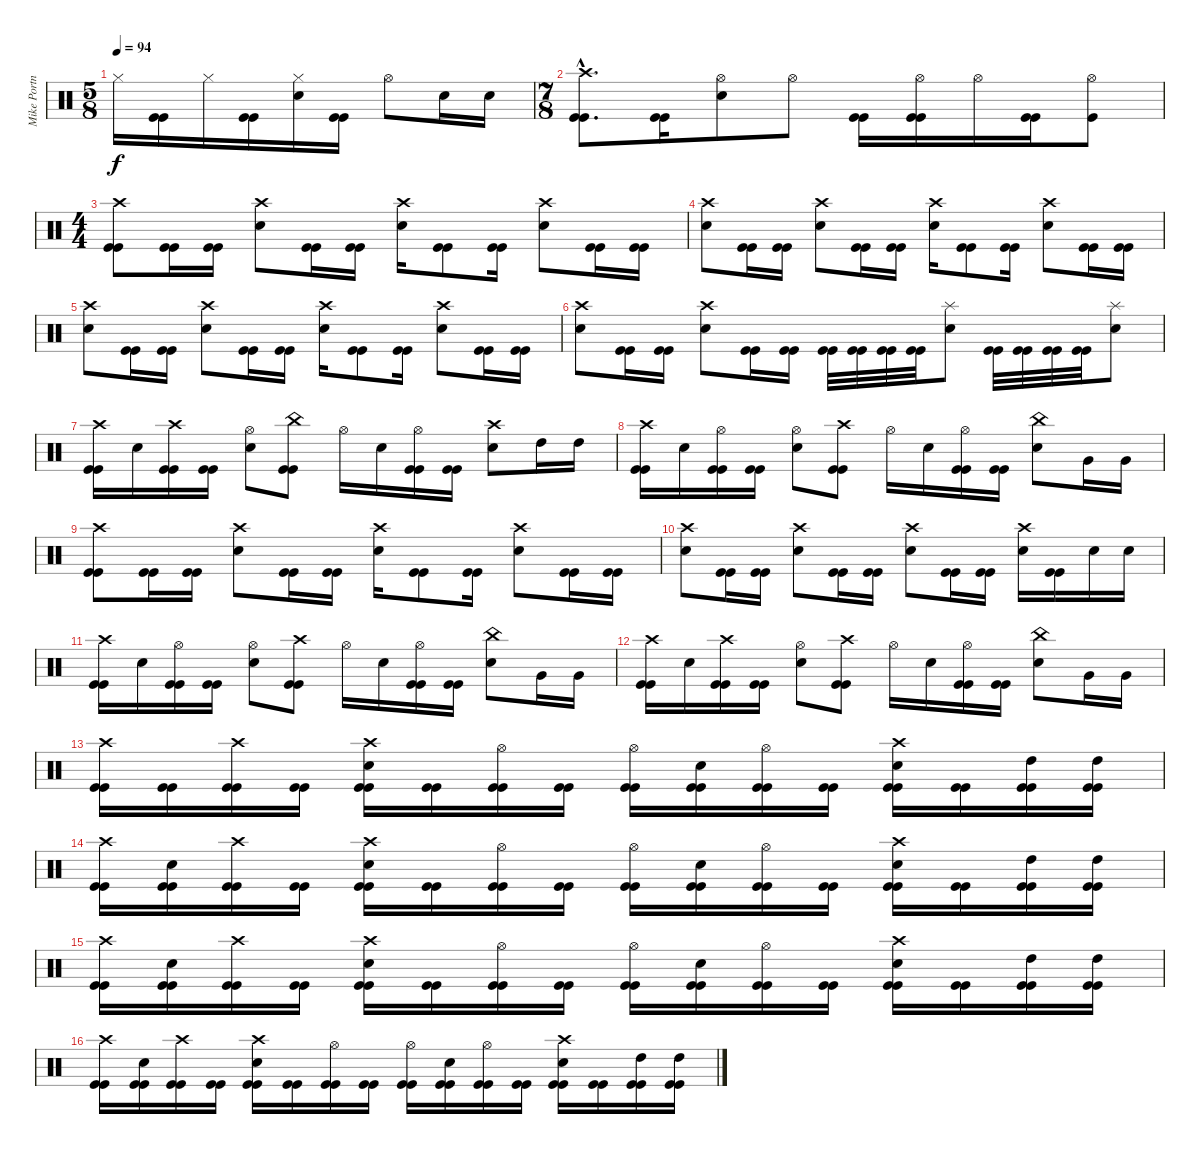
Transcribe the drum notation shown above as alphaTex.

\track ("Mike Portnoy - Drum" "Mike Portn") {instrument percussion}
\staff {score}
\articulation defaults
\ts (5 8)
\tempo 94
\clef neutral
\ks c "Hi-Hat (closed)".16{dy f}
("Kick (hit)" "Kick (hit)").16 "Hi-Hat (closed)".16 ("Kick (hit)" "Kick (hit)").16 ("Hi-Hat (closed)" "Snare (hit) 2").16 ("Kick (hit)" "Kick (hit)").16 "Hi-Hat (open)".8 "Snare (hit) 2".16 "Snare (hit) 2".16 |
\ts (7 8)
("Crash high (hit)"{hac} "Kick (hit)"{hac} "Kick (hit)"{hac}).8{d} ("Kick (hit)" "Kick (hit)").16 ("Hi-Hat (open)" "Snare (hit) 2").8 "Hi-Hat (open)".8 ("Kick (hit)" "Kick (hit)").16 ("Hi-Hat (open)" "Kick (hit)" "Kick (hit)").16 "Hi-Hat (open)".16 ("Kick (hit)" "Kick (hit)").16 ("Hi-Hat (open)" "Kick (hit)").8 |
\ts (4 4)
("Crash high (hit)" "Kick (hit)" "Kick (hit)").8 ("Kick (hit)" "Kick (hit)").16 ("Kick (hit)" "Kick (hit)").16 ("Crash high (hit)" "Snare (hit) 2").8 ("Kick (hit)" "Kick (hit)").16 ("Kick (hit)" "Kick (hit)").16 ("Crash high (hit)" "Snare (hit) 2").16 ("Kick (hit)" "Kick (hit)").8 ("Kick (hit)" "Kick (hit)").16 ("Crash high (hit)" "Snare (hit) 2").8 ("Kick (hit)" "Kick (hit)").16 ("Kick (hit)" "Kick (hit)").16 |
("Crash high (hit)" "Snare (hit) 2").8 ("Kick (hit)" "Kick (hit)").16 ("Kick (hit)" "Kick (hit)").16 ("Crash high (hit)" "Snare (hit) 2").8 ("Kick (hit)" "Kick (hit)").16 ("Kick (hit)" "Kick (hit)").16 ("Crash high (hit)" "Snare (hit) 2").16 ("Kick (hit)" "Kick (hit)").8 ("Kick (hit)" "Kick (hit)").16 ("Crash high (hit)" "Snare (hit) 2").8 ("Kick (hit)" "Kick (hit)").16 ("Kick (hit)" "Kick (hit)").16 |
("Crash high (hit)" "Snare (hit) 2").8 ("Kick (hit)" "Kick (hit)").16 ("Kick (hit)" "Kick (hit)").16 ("Crash high (hit)" "Snare (hit) 2").8 ("Kick (hit)" "Kick (hit)").16 ("Kick (hit)" "Kick (hit)").16 ("Crash high (hit)" "Snare (hit) 2").16 ("Kick (hit)" "Kick (hit)").8 ("Kick (hit)" "Kick (hit)").16 ("Crash high (hit)" "Snare (hit) 2").8 ("Kick (hit)" "Kick (hit)").16 ("Kick (hit)" "Kick (hit)").16 |
("Crash high (hit)" "Snare (hit) 2").8 ("Kick (hit)" "Kick (hit)").16 ("Kick (hit)" "Kick (hit)").16 ("Crash high (hit)" "Snare (hit) 2").8 ("Kick (hit)" "Kick (hit)").16 ("Kick (hit)" "Kick (hit)").16 ("Kick (hit)" "Kick (hit)").32 ("Kick (hit)" "Kick (hit)").32 ("Kick (hit)" "Kick (hit)").32 ("Kick (hit)" "Kick (hit)").32 ("Splash (hit)" "Snare (hit) 2").8 ("Kick (hit)" "Kick (hit)").32 ("Kick (hit)" "Kick (hit)").32 ("Kick (hit)" "Kick (hit)").32 ("Kick (hit)" "Kick (hit)").32 ("Splash (hit)" "Snare (hit) 2").8 |
("Crash high (hit)" "Kick (hit)" "Kick (hit)").16 "Snare (hit) 2".16 ("Crash high (hit)" "Kick (hit)" "Kick (hit)").16 ("Kick (hit)" "Kick (hit)").16 ("Hi-Hat (open)" "Snare (hit) 2").8 ("China (hit)" "Kick (hit)" "Kick (hit)").8 "Hi-Hat (open)".16 "Snare (hit) 2".16 ("Hi-Hat (open)" "Kick (hit)" "Kick (hit)").16 ("Kick (hit)" "Kick (hit)").16 ("Crash high (hit)" "Snare (hit) 2").8 "High Tom (hit)".16 "High Tom (hit)".16 |
("Crash high (hit)" "Kick (hit)" "Kick (hit)").16 "Snare (hit) 2".16 ("Hi-Hat (open)" "Kick (hit)" "Kick (hit)").16 ("Kick (hit)" "Kick (hit)").16 ("Hi-Hat (open)" "Snare (hit) 2").8 ("Crash high (hit)" "Kick (hit)" "Kick (hit)").8 "Hi-Hat (open)".16 "Snare (hit) 2".16 ("Hi-Hat (open)" "Kick (hit)" "Kick (hit)").16 ("Kick (hit)" "Kick (hit)").16 ("China (hit)" "Snare (hit) 2").8 "Very Low Tom (hit)".16 "Very Low Tom (hit)".16 |
("Crash high (hit)" "Kick (hit)" "Kick (hit)").8 ("Kick (hit)" "Kick (hit)").16 ("Kick (hit)" "Kick (hit)").16 ("Crash high (hit)" "Snare (hit) 2").8 ("Kick (hit)" "Kick (hit)").16 ("Kick (hit)" "Kick (hit)").16 ("Crash high (hit)" "Snare (hit) 2").16 ("Kick (hit)" "Kick (hit)").8 ("Kick (hit)" "Kick (hit)").16 ("Crash high (hit)" "Snare (hit) 2").8 ("Kick (hit)" "Kick (hit)").16 ("Kick (hit)" "Kick (hit)").16 |
("Crash high (hit)" "Snare (hit) 2").8 ("Kick (hit)" "Kick (hit)").16 ("Kick (hit)" "Kick (hit)").16 ("Crash high (hit)" "Snare (hit) 2").8 ("Kick (hit)" "Kick (hit)").16 ("Kick (hit)" "Kick (hit)").16 ("Crash high (hit)" "Snare (hit) 2").8 ("Kick (hit)" "Kick (hit)").16 ("Kick (hit)" "Kick (hit)").16 ("Crash high (hit)" "Snare (hit) 2").16 ("Kick (hit)" "Kick (hit)").16 "Snare (hit) 2".16 "Snare (hit) 2".16 |
("Crash high (hit)" "Kick (hit)" "Kick (hit)").16 "Snare (hit) 2".16 ("Hi-Hat (open)" "Kick (hit)" "Kick (hit)").16 ("Kick (hit)" "Kick (hit)").16 ("Hi-Hat (open)" "Snare (hit) 2").8 ("Crash high (hit)" "Kick (hit)" "Kick (hit)").8 "Hi-Hat (open)".16 "Snare (hit) 2".16 ("Hi-Hat (open)" "Kick (hit)" "Kick (hit)").16 ("Kick (hit)" "Kick (hit)").16 ("China (hit)" "Snare (hit) 2").8 "Very Low Tom (hit)".16 "Very Low Tom (hit)".16 |
("Crash high (hit)" "Kick (hit)" "Kick (hit)").16 "Snare (hit) 2".16 ("Crash high (hit)" "Kick (hit)" "Kick (hit)").16 ("Kick (hit)" "Kick (hit)").16 ("Hi-Hat (open)" "Snare (hit) 2").8 ("Crash high (hit)" "Kick (hit)" "Kick (hit)").8 "Hi-Hat (open)".16 "Snare (hit) 2".16 ("Hi-Hat (open)" "Kick (hit)" "Kick (hit)").16 ("Kick (hit)" "Kick (hit)").16 ("China (hit)" "Snare (hit) 2").8 "Very Low Tom (hit)".16 "Very Low Tom (hit)".16 |
("Crash high (hit)" "Kick (hit)" "Kick (hit)").16 ("Kick (hit)" "Kick (hit)").16 ("Crash high (hit)" "Kick (hit)" "Kick (hit)").16 ("Kick (hit)" "Kick (hit)").16 ("Crash high (hit)" "Snare (hit) 2" "Kick (hit)" "Kick (hit)").16 ("Kick (hit)" "Kick (hit)").16 ("Hi-Hat (open)" "Kick (hit)" "Kick (hit)").16 ("Kick (hit)" "Kick (hit)").16 ("Hi-Hat (open)" "Kick (hit)" "Kick (hit)").16 ("Snare (hit) 2" "Kick (hit)" "Kick (hit)").16 ("Hi-Hat (open)" "Kick (hit)" "Kick (hit)").16 ("Kick (hit)" "Kick (hit)").16 ("Crash high (hit)" "Snare (hit) 2" "Kick (hit)" "Kick (hit)").16 ("Kick (hit)" "Kick (hit)").16 ("High Tom (hit)" "Kick (hit)" "Kick (hit)").16 ("High Tom (hit)" "Kick (hit)" "Kick (hit)").16 |
("Crash high (hit)" "Kick (hit)" "Kick (hit)").16 ("Snare (hit) 2" "Kick (hit)" "Kick (hit)").16 ("Crash high (hit)" "Kick (hit)" "Kick (hit)").16 ("Kick (hit)" "Kick (hit)").16 ("Crash high (hit)" "Snare (hit) 2" "Kick (hit)" "Kick (hit)").16 ("Kick (hit)" "Kick (hit)").16 ("Hi-Hat (open)" "Kick (hit)" "Kick (hit)").16 ("Kick (hit)" "Kick (hit)").16 ("Hi-Hat (open)" "Kick (hit)" "Kick (hit)").16 ("Snare (hit) 2" "Kick (hit)" "Kick (hit)").16 ("Hi-Hat (open)" "Kick (hit)" "Kick (hit)").16 ("Kick (hit)" "Kick (hit)").16 ("Crash high (hit)" "Snare (hit) 2" "Kick (hit)" "Kick (hit)").16 ("Kick (hit)" "Kick (hit)").16 ("High Tom (hit)" "Kick (hit)" "Kick (hit)").16 ("High Tom (hit)" "Kick (hit)" "Kick (hit)").16 |
("Crash high (hit)" "Kick (hit)" "Kick (hit)").16 ("Snare (hit) 2" "Kick (hit)" "Kick (hit)").16 ("Crash high (hit)" "Kick (hit)" "Kick (hit)").16 ("Kick (hit)" "Kick (hit)").16 ("Crash high (hit)" "Snare (hit) 2" "Kick (hit)" "Kick (hit)").16 ("Kick (hit)" "Kick (hit)").16 ("Hi-Hat (open)" "Kick (hit)" "Kick (hit)").16 ("Kick (hit)" "Kick (hit)").16 ("Hi-Hat (open)" "Kick (hit)" "Kick (hit)").16 ("Snare (hit) 2" "Kick (hit)" "Kick (hit)").16 ("Hi-Hat (open)" "Kick (hit)" "Kick (hit)").16 ("Kick (hit)" "Kick (hit)").16 ("Crash high (hit)" "Snare (hit) 2" "Kick (hit)" "Kick (hit)").16 ("Kick (hit)" "Kick (hit)").16 ("High Tom (hit)" "Kick (hit)" "Kick (hit)").16 ("High Tom (hit)" "Kick (hit)" "Kick (hit)").16 |
("Crash high (hit)" "Kick (hit)" "Kick (hit)").16 ("Snare (hit) 2" "Kick (hit)" "Kick (hit)").16 ("Crash high (hit)" "Kick (hit)" "Kick (hit)").16 ("Kick (hit)" "Kick (hit)").16 ("Crash high (hit)" "Snare (hit) 2" "Kick (hit)" "Kick (hit)").16 ("Kick (hit)" "Kick (hit)").16 ("Hi-Hat (open)" "Kick (hit)" "Kick (hit)").16 ("Kick (hit)" "Kick (hit)").16 ("Hi-Hat (open)" "Kick (hit)" "Kick (hit)").16 ("Snare (hit) 2" "Kick (hit)" "Kick (hit)").16 ("Hi-Hat (open)" "Kick (hit)" "Kick (hit)").16 ("Kick (hit)" "Kick (hit)").16 ("Crash high (hit)" "Snare (hit) 2" "Kick (hit)" "Kick (hit)").16 ("Kick (hit)" "Kick (hit)").16 ("High Tom (hit)" "Kick (hit)" "Kick (hit)").16 ("High Tom (hit)" "Kick (hit)" "Kick (hit)").16
